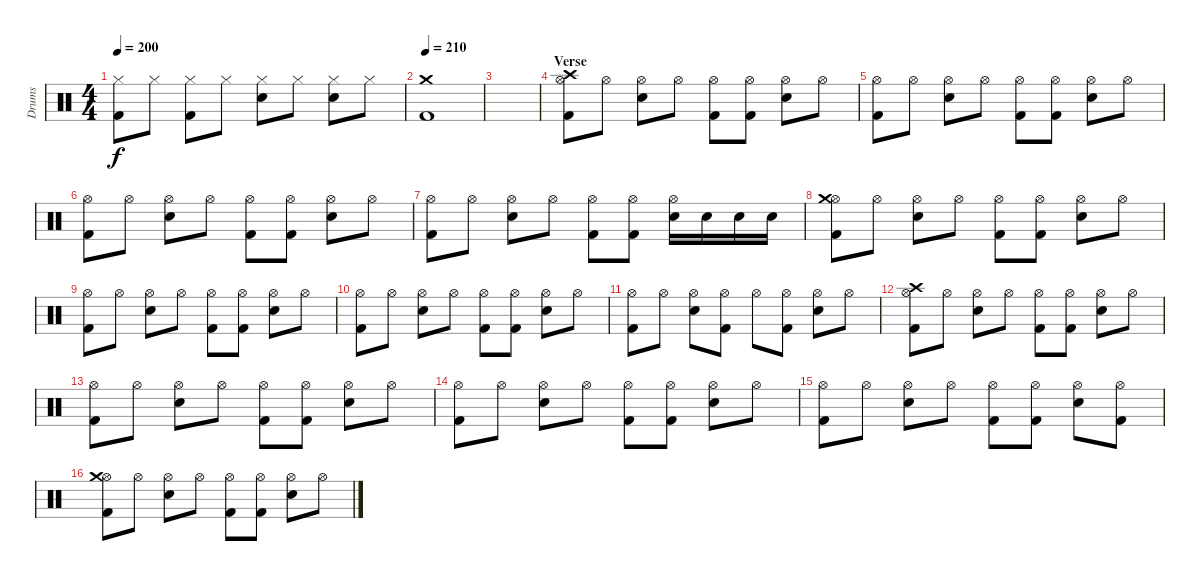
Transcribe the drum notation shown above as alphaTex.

\track ("Drums" "Drums") {instrument percussion}
\staff {score}
\articulation defaults
\ts (4 4)
\tempo 200
\clef neutral
\ks c
("Hi-Hat (closed)" "Kick (hit) 2").8{dy f} "Hi-Hat (closed)".8 ("Hi-Hat (closed)" "Kick (hit) 2").8 "Hi-Hat (closed)".8 ("Hi-Hat (closed)" "Electric Snare (hit)").8 "Hi-Hat (closed)".8 ("Hi-Hat (closed)" "Electric Snare (hit)").8 "Hi-Hat (closed)".8 |
\tempo 210
("Crash medium (hit)" "Kick (hit) 2").1 |
|
\section ("" "Verse")
("Hi-Hat (open)" "Crash high (hit)" "Kick (hit) 2").8 "Hi-Hat (open)".8 ("Hi-Hat (open)" "Electric Snare (hit)").8 "Hi-Hat (open)".8 ("Hi-Hat (open)" "Kick (hit) 2").8 ("Hi-Hat (open)" "Kick (hit) 2").8 ("Hi-Hat (open)" "Electric Snare (hit)").8 "Hi-Hat (open)".8 |
("Hi-Hat (open)" "Kick (hit) 2").8 "Hi-Hat (open)".8 ("Hi-Hat (open)" "Electric Snare (hit)").8 "Hi-Hat (open)".8 ("Hi-Hat (open)" "Kick (hit) 2").8 ("Hi-Hat (open)" "Kick (hit) 2").8 ("Hi-Hat (open)" "Electric Snare (hit)").8 "Hi-Hat (open)".8 |
("Hi-Hat (open)" "Kick (hit) 2").8 "Hi-Hat (open)".8 ("Hi-Hat (open)" "Electric Snare (hit)").8 "Hi-Hat (open)".8 ("Hi-Hat (open)" "Kick (hit) 2").8 ("Hi-Hat (open)" "Kick (hit) 2").8 ("Hi-Hat (open)" "Electric Snare (hit)").8 "Hi-Hat (open)".8 |
("Hi-Hat (open)" "Kick (hit) 2").8 "Hi-Hat (open)".8 ("Hi-Hat (open)" "Electric Snare (hit)").8 "Hi-Hat (open)".8 ("Hi-Hat (open)" "Kick (hit) 2").8 ("Hi-Hat (open)" "Kick (hit) 2").8 ("Hi-Hat (open)" "Electric Snare (hit)").16 "Electric Snare (hit)".16 "Electric Snare (hit)".16 "Electric Snare (hit)".16 |
("Hi-Hat (open)" "Crash medium (hit)" "Kick (hit) 2").8 "Hi-Hat (open)".8 ("Hi-Hat (open)" "Electric Snare (hit)").8 "Hi-Hat (open)".8 ("Hi-Hat (open)" "Kick (hit) 2").8 ("Hi-Hat (open)" "Kick (hit) 2").8 ("Hi-Hat (open)" "Electric Snare (hit)").8 "Hi-Hat (open)".8 |
("Hi-Hat (open)" "Kick (hit) 2").8 "Hi-Hat (open)".8 ("Hi-Hat (open)" "Electric Snare (hit)").8 "Hi-Hat (open)".8 ("Hi-Hat (open)" "Kick (hit) 2").8 ("Hi-Hat (open)" "Kick (hit) 2").8 ("Hi-Hat (open)" "Electric Snare (hit)").8 "Hi-Hat (open)".8 |
("Hi-Hat (open)" "Kick (hit) 2").8 "Hi-Hat (open)".8 ("Hi-Hat (open)" "Electric Snare (hit)").8 "Hi-Hat (open)".8 ("Hi-Hat (open)" "Kick (hit) 2").8 ("Hi-Hat (open)" "Kick (hit) 2").8 ("Hi-Hat (open)" "Electric Snare (hit)").8 "Hi-Hat (open)".8 |
("Hi-Hat (open)" "Kick (hit) 2").8 "Hi-Hat (open)".8 ("Hi-Hat (open)" "Electric Snare (hit)").8 ("Hi-Hat (open)" "Kick (hit) 2").8 "Hi-Hat (open)".8 ("Hi-Hat (open)" "Kick (hit) 2").8 ("Hi-Hat (open)" "Electric Snare (hit)").8 "Hi-Hat (open)".8 |
("Hi-Hat (open)" "Crash high (hit)" "Kick (hit) 2").8 "Hi-Hat (open)".8 ("Hi-Hat (open)" "Electric Snare (hit)").8 "Hi-Hat (open)".8 ("Hi-Hat (open)" "Kick (hit) 2").8 ("Hi-Hat (open)" "Kick (hit) 2").8 ("Hi-Hat (open)" "Electric Snare (hit)").8 "Hi-Hat (open)".8 |
("Hi-Hat (open)" "Kick (hit) 2").8 "Hi-Hat (open)".8 ("Hi-Hat (open)" "Electric Snare (hit)").8 "Hi-Hat (open)".8 ("Hi-Hat (open)" "Kick (hit) 2").8 ("Hi-Hat (open)" "Kick (hit) 2").8 ("Hi-Hat (open)" "Electric Snare (hit)").8 "Hi-Hat (open)".8 |
("Hi-Hat (open)" "Kick (hit) 2").8 "Hi-Hat (open)".8 ("Hi-Hat (open)" "Electric Snare (hit)").8 "Hi-Hat (open)".8 ("Hi-Hat (open)" "Kick (hit) 2").8 ("Hi-Hat (open)" "Kick (hit) 2").8 ("Hi-Hat (open)" "Electric Snare (hit)").8 "Hi-Hat (open)".8 |
("Hi-Hat (open)" "Kick (hit) 2").8 "Hi-Hat (open)".8 ("Hi-Hat (open)" "Electric Snare (hit)").8 "Hi-Hat (open)".8 ("Hi-Hat (open)" "Kick (hit) 2").8 ("Hi-Hat (open)" "Kick (hit) 2").8 ("Hi-Hat (open)" "Electric Snare (hit)").8 ("Hi-Hat (open)" "Kick (hit) 2").8 |
("Hi-Hat (open)" "Crash medium (hit)" "Kick (hit) 2").8 "Hi-Hat (open)".8 ("Hi-Hat (open)" "Electric Snare (hit)").8 "Hi-Hat (open)".8 ("Hi-Hat (open)" "Kick (hit) 2").8 ("Hi-Hat (open)" "Kick (hit) 2").8 ("Hi-Hat (open)" "Electric Snare (hit)").8 "Hi-Hat (open)".8
